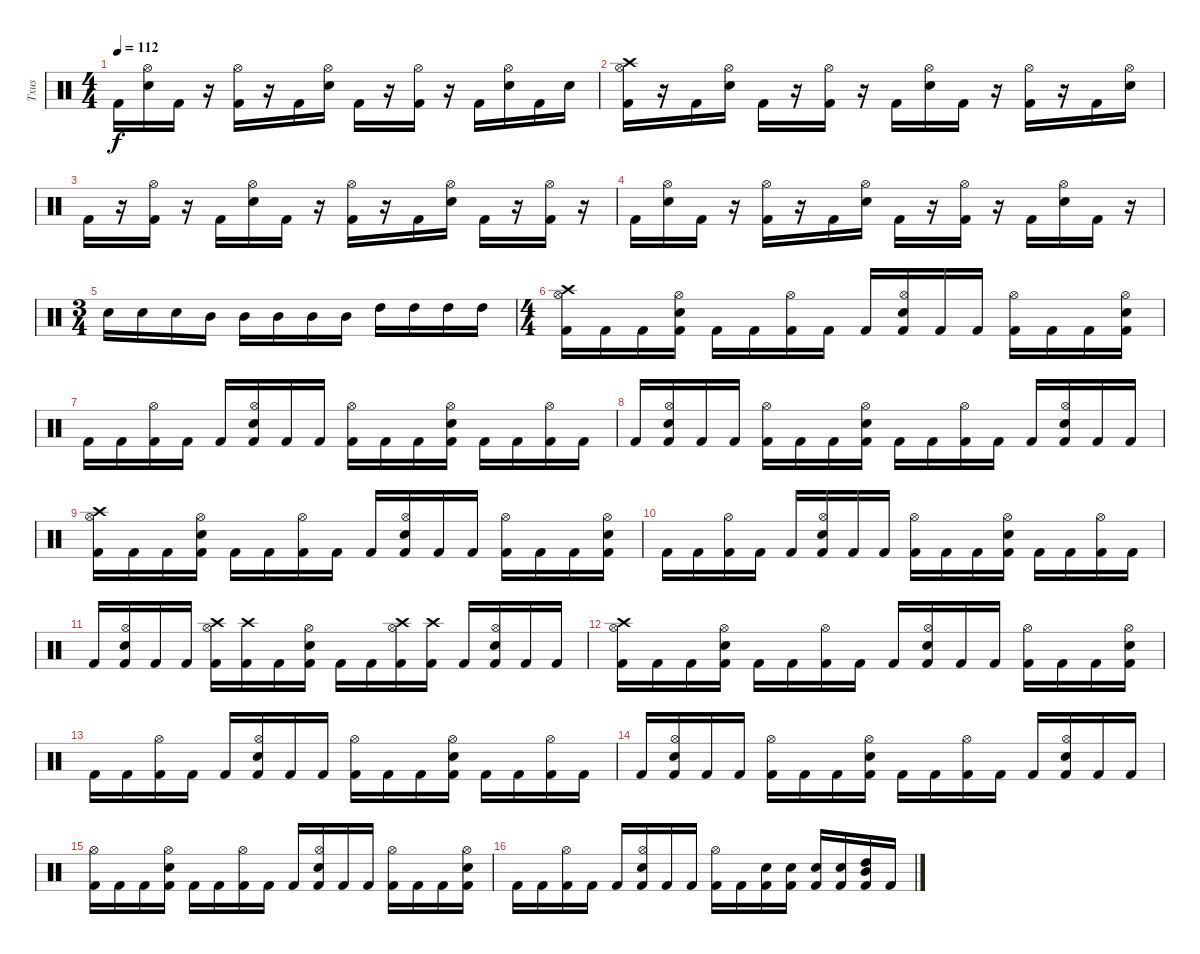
\track ("Txus" "Txus") {instrument percussion}
\staff {score}
\articulation defaults
\ts (4 4)
\tempo 112
\clef neutral
\ks c "Kick (hit) 2".16{dy f}
("Hi-Hat (open)" "Electric Snare (hit)").16 "Kick (hit) 2".16 r.16 ("Kick (hit) 2" "Hi-Hat (open)").16 r.16 "Kick (hit) 2".16 ("Hi-Hat (open)" "Electric Snare (hit)").16 "Kick (hit) 2".16 r.16 ("Kick (hit) 2" "Hi-Hat (open)").16 r.16 "Kick (hit) 2".16 ("Hi-Hat (open)" "Electric Snare (hit)").16 "Kick (hit) 2".16 "Electric Snare (hit)".16 |
("Kick (hit) 2" "Hi-Hat (open)" "Crash high (hit)").16 r.16 "Kick (hit) 2".16 ("Hi-Hat (open)" "Electric Snare (hit)").16 "Kick (hit) 2".16 r.16 ("Kick (hit) 2" "Hi-Hat (open)").16 r.16 "Kick (hit) 2".16 ("Hi-Hat (open)" "Electric Snare (hit)").16 "Kick (hit) 2".16 r.16 ("Kick (hit) 2" "Hi-Hat (open)").16 r.16 "Kick (hit) 2".16 ("Hi-Hat (open)" "Electric Snare (hit)").16 |
"Kick (hit) 2".16 r.16 ("Kick (hit) 2" "Hi-Hat (open)").16 r.16 "Kick (hit) 2".16 ("Hi-Hat (open)" "Electric Snare (hit)").16 "Kick (hit) 2".16 r.16 ("Kick (hit) 2" "Hi-Hat (open)").16 r.16 "Kick (hit) 2".16 ("Hi-Hat (open)" "Electric Snare (hit)").16 "Kick (hit) 2".16 r.16 ("Kick (hit) 2" "Hi-Hat (open)").16 r.16 |
"Kick (hit) 2".16 ("Hi-Hat (open)" "Electric Snare (hit)").16 "Kick (hit) 2".16 r.16 ("Kick (hit) 2" "Hi-Hat (open)").16 r.16 "Kick (hit) 2".16 ("Electric Snare (hit)" "Hi-Hat (open)").16 "Kick (hit) 2".16 r.16 ("Kick (hit) 2" "Hi-Hat (open)").16 r.16 "Kick (hit) 2".16 ("Hi-Hat (open)" "Electric Snare (hit)").16 "Kick (hit) 2".16 r.16 |
\ts (3 4)
"Electric Snare (hit)".16 "Electric Snare (hit)".16 "Electric Snare (hit)".16 "Mid Tom (hit)".16 "Mid Tom (hit)".16 "Mid Tom (hit)".16 "Mid Tom (hit)".16 "Mid Tom (hit)".16 "High Tom (hit)".16 "High Tom (hit)".16 "High Tom (hit)".16 "High Tom (hit)".16 |
\ts (4 4)
("Kick (hit) 2" "Hi-Hat (open)" "Crash high (hit)").16 "Kick (hit) 2".16 "Kick (hit) 2".16 ("Kick (hit) 2" "Hi-Hat (open)" "Electric Snare (hit)").16 "Kick (hit) 2".16 "Kick (hit) 2".16 ("Kick (hit) 2" "Hi-Hat (open)").16 "Kick (hit) 2".16 "Kick (hit) 2".16 ("Kick (hit) 2" "Hi-Hat (open)" "Electric Snare (hit)").16 "Kick (hit) 2".16 "Kick (hit) 2".16 ("Kick (hit) 2" "Hi-Hat (open)").16 "Kick (hit) 2".16 "Kick (hit) 2".16 ("Kick (hit) 2" "Hi-Hat (open)" "Electric Snare (hit)").16 |
"Kick (hit) 2".16 "Kick (hit) 2".16 ("Kick (hit) 2" "Hi-Hat (open)").16 "Kick (hit) 2".16 "Kick (hit) 2".16 ("Kick (hit) 2" "Hi-Hat (open)" "Electric Snare (hit)").16 "Kick (hit) 2".16 "Kick (hit) 2".16 ("Kick (hit) 2" "Hi-Hat (open)").16 "Kick (hit) 2".16 "Kick (hit) 2".16 ("Kick (hit) 2" "Hi-Hat (open)" "Electric Snare (hit)").16 "Kick (hit) 2".16 "Kick (hit) 2".16 ("Kick (hit) 2" "Hi-Hat (open)").16 "Kick (hit) 2".16 |
"Kick (hit) 2".16 ("Kick (hit) 2" "Hi-Hat (open)" "Electric Snare (hit)").16 "Kick (hit) 2".16 "Kick (hit) 2".16 ("Kick (hit) 2" "Hi-Hat (open)").16 "Kick (hit) 2".16 "Kick (hit) 2".16 ("Kick (hit) 2" "Hi-Hat (open)" "Electric Snare (hit)").16 "Kick (hit) 2".16 "Kick (hit) 2".16 ("Kick (hit) 2" "Hi-Hat (open)").16 "Kick (hit) 2".16 "Kick (hit) 2".16 ("Kick (hit) 2" "Hi-Hat (open)" "Electric Snare (hit)").16 "Kick (hit) 2".16 "Kick (hit) 2".16 |
("Kick (hit) 2" "Hi-Hat (open)" "Crash high (hit)").16 "Kick (hit) 2".16 "Kick (hit) 2".16 ("Kick (hit) 2" "Hi-Hat (open)" "Electric Snare (hit)").16 "Kick (hit) 2".16 "Kick (hit) 2".16 ("Kick (hit) 2" "Hi-Hat (open)").16 "Kick (hit) 2".16 "Kick (hit) 2".16 ("Kick (hit) 2" "Hi-Hat (open)" "Electric Snare (hit)").16 "Kick (hit) 2".16 "Kick (hit) 2".16 ("Kick (hit) 2" "Hi-Hat (open)").16 "Kick (hit) 2".16 "Kick (hit) 2".16 ("Kick (hit) 2" "Hi-Hat (open)" "Electric Snare (hit)").16 |
"Kick (hit) 2".16 "Kick (hit) 2".16 ("Kick (hit) 2" "Hi-Hat (open)").16 "Kick (hit) 2".16 "Kick (hit) 2".16 ("Kick (hit) 2" "Hi-Hat (open)" "Electric Snare (hit)").16 "Kick (hit) 2".16 "Kick (hit) 2".16 ("Kick (hit) 2" "Hi-Hat (open)").16 "Kick (hit) 2".16 "Kick (hit) 2".16 ("Kick (hit) 2" "Hi-Hat (open)" "Electric Snare (hit)").16 "Kick (hit) 2".16 "Kick (hit) 2".16 ("Kick (hit) 2" "Hi-Hat (open)").16 "Kick (hit) 2".16 |
"Kick (hit) 2".16 ("Kick (hit) 2" "Hi-Hat (open)" "Electric Snare (hit)").16 "Kick (hit) 2".16 "Kick (hit) 2".16 ("Kick (hit) 2" "Hi-Hat (open)" "Crash high (hit)").16 ("Kick (hit) 2" "Crash high (hit)").16 "Kick (hit) 2".16 ("Kick (hit) 2" "Hi-Hat (open)" "Electric Snare (hit)").16 "Kick (hit) 2".16 "Kick (hit) 2".16 ("Kick (hit) 2" "Hi-Hat (open)" "Crash high (hit)").16 ("Kick (hit) 2" "Crash high (hit)").16 "Kick (hit) 2".16 ("Kick (hit) 2" "Hi-Hat (open)" "Electric Snare (hit)").16 "Kick (hit) 2".16 "Kick (hit) 2".16 |
("Kick (hit) 2" "Hi-Hat (open)" "Crash high (hit)").16 "Kick (hit) 2".16 "Kick (hit) 2".16 ("Kick (hit) 2" "Hi-Hat (open)" "Electric Snare (hit)").16 "Kick (hit) 2".16 "Kick (hit) 2".16 ("Kick (hit) 2" "Hi-Hat (open)").16 "Kick (hit) 2".16 "Kick (hit) 2".16 ("Kick (hit) 2" "Hi-Hat (open)" "Electric Snare (hit)").16 "Kick (hit) 2".16 "Kick (hit) 2".16 ("Kick (hit) 2" "Hi-Hat (open)").16 "Kick (hit) 2".16 "Kick (hit) 2".16 ("Kick (hit) 2" "Hi-Hat (open)" "Electric Snare (hit)").16 |
"Kick (hit) 2".16 "Kick (hit) 2".16 ("Kick (hit) 2" "Hi-Hat (open)").16 "Kick (hit) 2".16 "Kick (hit) 2".16 ("Kick (hit) 2" "Hi-Hat (open)" "Electric Snare (hit)").16 "Kick (hit) 2".16 "Kick (hit) 2".16 ("Kick (hit) 2" "Hi-Hat (open)").16 "Kick (hit) 2".16 "Kick (hit) 2".16 ("Kick (hit) 2" "Hi-Hat (open)" "Electric Snare (hit)").16 "Kick (hit) 2".16 "Kick (hit) 2".16 ("Kick (hit) 2" "Hi-Hat (open)").16 "Kick (hit) 2".16 |
"Kick (hit) 2".16 ("Kick (hit) 2" "Hi-Hat (open)" "Electric Snare (hit)").16 "Kick (hit) 2".16 "Kick (hit) 2".16 ("Kick (hit) 2" "Hi-Hat (open)").16 "Kick (hit) 2".16 "Kick (hit) 2".16 ("Kick (hit) 2" "Hi-Hat (open)" "Electric Snare (hit)").16 "Kick (hit) 2".16 "Kick (hit) 2".16 ("Kick (hit) 2" "Hi-Hat (open)").16 "Kick (hit) 2".16 "Kick (hit) 2".16 ("Kick (hit) 2" "Hi-Hat (open)" "Electric Snare (hit)").16 "Kick (hit) 2".16 "Kick (hit) 2".16 |
("Kick (hit) 2" "Hi-Hat (open)").16 "Kick (hit) 2".16 "Kick (hit) 2".16 ("Kick (hit) 2" "Hi-Hat (open)" "Electric Snare (hit)").16 "Kick (hit) 2".16 "Kick (hit) 2".16 ("Kick (hit) 2" "Hi-Hat (open)").16 "Kick (hit) 2".16 "Kick (hit) 2".16 ("Kick (hit) 2" "Hi-Hat (open)" "Electric Snare (hit)").16 "Kick (hit) 2".16 "Kick (hit) 2".16 ("Kick (hit) 2" "Hi-Hat (open)").16 "Kick (hit) 2".16 "Kick (hit) 2".16 ("Kick (hit) 2" "Hi-Hat (open)" "Electric Snare (hit)").16 |
"Kick (hit) 2".16 "Kick (hit) 2".16 ("Kick (hit) 2" "Hi-Hat (open)").16 "Kick (hit) 2".16 "Kick (hit) 2".16 ("Kick (hit) 2" "Hi-Hat (open)" "Electric Snare (hit)").16 "Kick (hit) 2".16 "Kick (hit) 2".16 ("Kick (hit) 2" "Hi-Hat (open)").16 "Kick (hit) 2".16 ("Electric Snare (hit)" "Kick (hit) 2").16 ("Electric Snare (hit)" "Kick (hit) 2").16 ("Electric Snare (hit)" "Kick (hit) 2").16 ("Electric Snare (hit)" "Kick (hit) 2").16 ("High Tom (hit)" "Mid Tom (hit)" "Kick (hit) 2").16 "Kick (hit) 2".16
